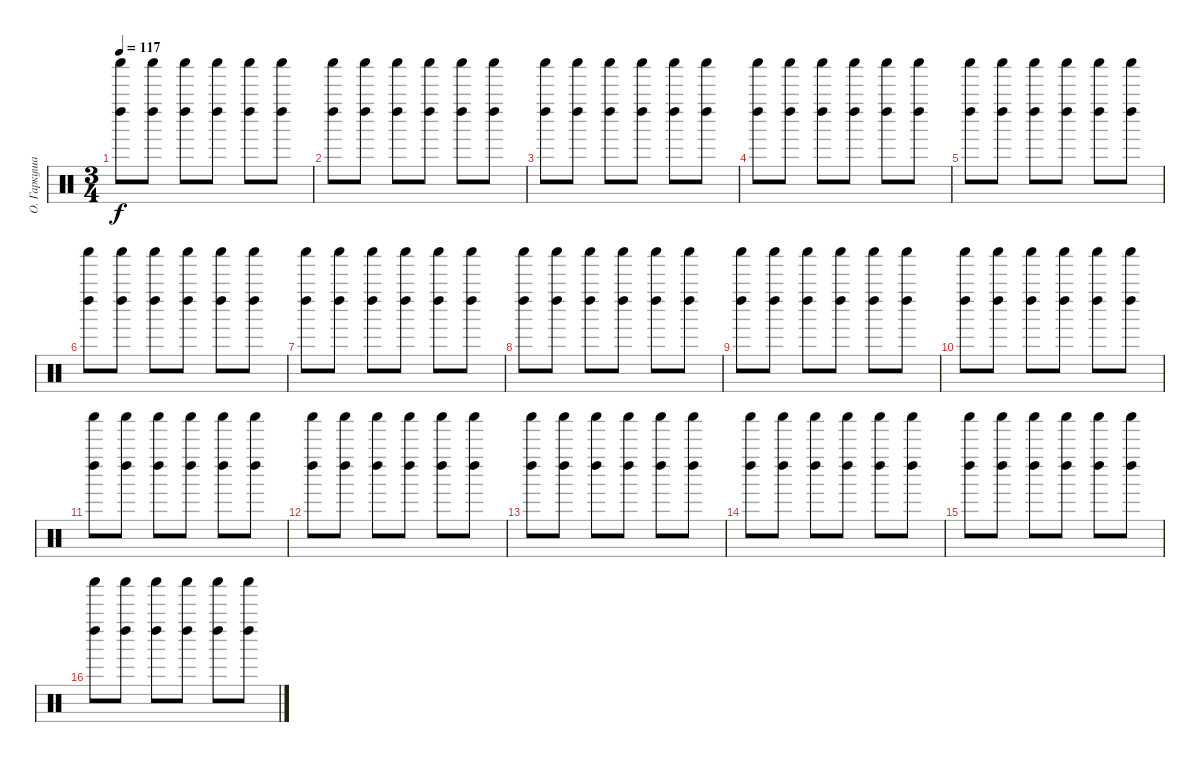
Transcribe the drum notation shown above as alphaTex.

\track ("О. Гаркуша" "О. Гаркуша") {instrument percussion}
\staff {score}
\articulation defaults
\ts (3 4)
\tempo 117
\clef neutral
\ks c
("Left Maraca (hit)" "Shaker (hit)").8{dy f} ("Left Maraca (hit)" "Shaker (hit)").8 ("Left Maraca (hit)" "Shaker (hit)").8 ("Left Maraca (hit)" "Shaker (hit)").8 ("Left Maraca (hit)" "Shaker (hit)").8 ("Left Maraca (hit)" "Shaker (hit)").8 |
("Left Maraca (hit)" "Shaker (hit)").8 ("Left Maraca (hit)" "Shaker (hit)").8 ("Left Maraca (hit)" "Shaker (hit)").8 ("Left Maraca (hit)" "Shaker (hit)").8 ("Left Maraca (hit)" "Shaker (hit)").8 ("Left Maraca (hit)" "Shaker (hit)").8 |
("Left Maraca (hit)" "Shaker (hit)").8 ("Left Maraca (hit)" "Shaker (hit)").8 ("Left Maraca (hit)" "Shaker (hit)").8 ("Left Maraca (hit)" "Shaker (hit)").8 ("Left Maraca (hit)" "Shaker (hit)").8 ("Left Maraca (hit)" "Shaker (hit)").8 |
("Left Maraca (hit)" "Shaker (hit)").8 ("Left Maraca (hit)" "Shaker (hit)").8 ("Left Maraca (hit)" "Shaker (hit)").8 ("Left Maraca (hit)" "Shaker (hit)").8 ("Left Maraca (hit)" "Shaker (hit)").8 ("Left Maraca (hit)" "Shaker (hit)").8 |
("Left Maraca (hit)" "Shaker (hit)").8 ("Left Maraca (hit)" "Shaker (hit)").8 ("Left Maraca (hit)" "Shaker (hit)").8 ("Left Maraca (hit)" "Shaker (hit)").8 ("Left Maraca (hit)" "Shaker (hit)").8 ("Left Maraca (hit)" "Shaker (hit)").8 |
("Left Maraca (hit)" "Shaker (hit)").8 ("Left Maraca (hit)" "Shaker (hit)").8 ("Left Maraca (hit)" "Shaker (hit)").8 ("Left Maraca (hit)" "Shaker (hit)").8 ("Left Maraca (hit)" "Shaker (hit)").8 ("Left Maraca (hit)" "Shaker (hit)").8 |
("Left Maraca (hit)" "Shaker (hit)").8 ("Left Maraca (hit)" "Shaker (hit)").8 ("Left Maraca (hit)" "Shaker (hit)").8 ("Left Maraca (hit)" "Shaker (hit)").8 ("Left Maraca (hit)" "Shaker (hit)").8 ("Left Maraca (hit)" "Shaker (hit)").8 |
("Left Maraca (hit)" "Shaker (hit)").8 ("Left Maraca (hit)" "Shaker (hit)").8 ("Left Maraca (hit)" "Shaker (hit)").8 ("Left Maraca (hit)" "Shaker (hit)").8 ("Left Maraca (hit)" "Shaker (hit)").8 ("Left Maraca (hit)" "Shaker (hit)").8 |
("Left Maraca (hit)" "Shaker (hit)").8 ("Left Maraca (hit)" "Shaker (hit)").8 ("Left Maraca (hit)" "Shaker (hit)").8 ("Left Maraca (hit)" "Shaker (hit)").8 ("Left Maraca (hit)" "Shaker (hit)").8 ("Left Maraca (hit)" "Shaker (hit)").8 |
("Left Maraca (hit)" "Shaker (hit)").8 ("Left Maraca (hit)" "Shaker (hit)").8 ("Left Maraca (hit)" "Shaker (hit)").8 ("Left Maraca (hit)" "Shaker (hit)").8 ("Left Maraca (hit)" "Shaker (hit)").8 ("Left Maraca (hit)" "Shaker (hit)").8 |
("Left Maraca (hit)" "Shaker (hit)").8 ("Left Maraca (hit)" "Shaker (hit)").8 ("Left Maraca (hit)" "Shaker (hit)").8 ("Left Maraca (hit)" "Shaker (hit)").8 ("Left Maraca (hit)" "Shaker (hit)").8 ("Left Maraca (hit)" "Shaker (hit)").8 |
("Left Maraca (hit)" "Shaker (hit)").8 ("Left Maraca (hit)" "Shaker (hit)").8 ("Left Maraca (hit)" "Shaker (hit)").8 ("Left Maraca (hit)" "Shaker (hit)").8 ("Left Maraca (hit)" "Shaker (hit)").8 ("Left Maraca (hit)" "Shaker (hit)").8 |
("Left Maraca (hit)" "Shaker (hit)").8 ("Left Maraca (hit)" "Shaker (hit)").8 ("Left Maraca (hit)" "Shaker (hit)").8 ("Left Maraca (hit)" "Shaker (hit)").8 ("Left Maraca (hit)" "Shaker (hit)").8 ("Left Maraca (hit)" "Shaker (hit)").8 |
("Left Maraca (hit)" "Shaker (hit)").8 ("Left Maraca (hit)" "Shaker (hit)").8 ("Left Maraca (hit)" "Shaker (hit)").8 ("Left Maraca (hit)" "Shaker (hit)").8 ("Left Maraca (hit)" "Shaker (hit)").8 ("Left Maraca (hit)" "Shaker (hit)").8 |
("Left Maraca (hit)" "Shaker (hit)").8 ("Left Maraca (hit)" "Shaker (hit)").8 ("Left Maraca (hit)" "Shaker (hit)").8 ("Left Maraca (hit)" "Shaker (hit)").8 ("Left Maraca (hit)" "Shaker (hit)").8 ("Left Maraca (hit)" "Shaker (hit)").8 |
("Left Maraca (hit)" "Shaker (hit)").8 ("Left Maraca (hit)" "Shaker (hit)").8 ("Left Maraca (hit)" "Shaker (hit)").8 ("Left Maraca (hit)" "Shaker (hit)").8 ("Left Maraca (hit)" "Shaker (hit)").8 ("Left Maraca (hit)" "Shaker (hit)").8
